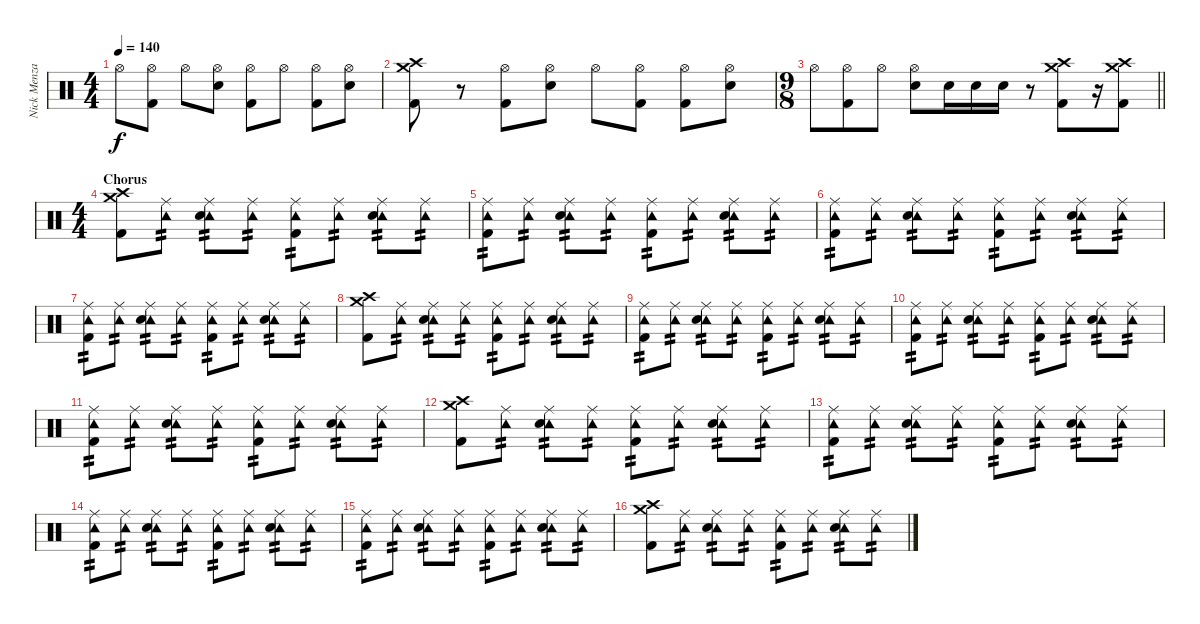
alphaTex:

\track ("Nick Menza" "Nick Menza") {instrument percussion}
\staff {score}
\articulation defaults
\ts (4 4)
\tempo 140
\clef neutral
\ks c "Hi-Hat (open)".8{dy f}
("Hi-Hat (open)" "Kick (hit) 2").8 "Hi-Hat (open)".8 ("Hi-Hat (open)" "Snare (hit) 2").8 ("Hi-Hat (open)" "Kick (hit) 2").8 "Hi-Hat (open)".8 ("Hi-Hat (open)" "Kick (hit) 2").8 ("Hi-Hat (open)" "Snare (hit) 2").8 |
("Crash high (hit)" "Crash medium (hit)" "Kick (hit) 2").8 r.8 ("Hi-Hat (open)" "Kick (hit) 2").8 ("Hi-Hat (open)" "Snare (hit) 2").8 "Hi-Hat (open)".8 ("Hi-Hat (open)" "Kick (hit) 2").8 ("Hi-Hat (open)" "Kick (hit) 2").8 ("Hi-Hat (open)" "Snare (hit) 2").8 |
\ts (9 8)
\barLineRight lightlight "Hi-Hat (open)".8
("Hi-Hat (open)" "Kick (hit) 2").8 "Hi-Hat (open)".8 ("Hi-Hat (open)" "Snare (hit) 2").8 "Snare (hit) 2".16 "Snare (hit) 2".16 "Snare (hit) 2".16 r.8 ("Crash high (hit)" "Crash medium (hit)" "Kick (hit) 2").8 r.16 ("Crash high (hit)" "Crash medium (hit)" "Kick (hit) 2").8 |
\ts (4 4)
\section ("" "Chorus")
("Crash high (hit)" "Crash medium (hit)" "Kick (hit) 2").8 ("Tambourine (hit)" "Ride (middle)").8{tp 2} ("Tambourine (hit)" "Ride (middle)" "Snare (hit) 2").8{tp 2} ("Tambourine (hit)" "Ride (middle)").8{tp 2} ("Tambourine (hit)" "Ride (middle)" "Kick (hit) 2").8{tp 2} ("Tambourine (hit)" "Ride (middle)").8{tp 2} ("Tambourine (hit)" "Ride (middle)" "Snare (hit) 2").8{tp 2} ("Tambourine (hit)" "Ride (middle)").8{tp 2} |
("Tambourine (hit)" "Ride (middle)" "Kick (hit) 2").8{tp 2} ("Tambourine (hit)" "Ride (middle)").8{tp 2} ("Tambourine (hit)" "Ride (middle)" "Snare (hit) 2").8{tp 2} ("Tambourine (hit)" "Ride (middle)").8{tp 2} ("Tambourine (hit)" "Ride (middle)" "Kick (hit) 2").8{tp 2} ("Tambourine (hit)" "Ride (middle)").8{tp 2} ("Tambourine (hit)" "Ride (middle)" "Snare (hit) 2").8{tp 2} ("Tambourine (hit)" "Ride (middle)").8{tp 2} |
("Tambourine (hit)" "Ride (middle)" "Kick (hit) 2").8{tp 2} ("Tambourine (hit)" "Ride (middle)").8{tp 2} ("Tambourine (hit)" "Ride (middle)" "Snare (hit) 2").8{tp 2} ("Tambourine (hit)" "Ride (middle)").8{tp 2} ("Tambourine (hit)" "Ride (middle)" "Kick (hit) 2").8{tp 2} ("Tambourine (hit)" "Ride (middle)").8{tp 2} ("Tambourine (hit)" "Ride (middle)" "Snare (hit) 2").8{tp 2} ("Tambourine (hit)" "Ride (middle)").8{tp 2} |
("Tambourine (hit)" "Ride (middle)" "Kick (hit) 2").8{tp 2} ("Tambourine (hit)" "Ride (middle)").8{tp 2} ("Tambourine (hit)" "Ride (middle)" "Snare (hit) 2").8{tp 2} ("Tambourine (hit)" "Ride (middle)").8{tp 2} ("Tambourine (hit)" "Ride (middle)" "Kick (hit) 2").8{tp 2} ("Tambourine (hit)" "Ride (middle)").8{tp 2} ("Tambourine (hit)" "Ride (middle)" "Snare (hit) 2").8{tp 2} ("Tambourine (hit)" "Ride (middle)").8{tp 2} |
("Crash high (hit)" "Crash medium (hit)" "Kick (hit) 2").8 ("Tambourine (hit)" "Ride (middle)").8{tp 2} ("Tambourine (hit)" "Ride (middle)" "Snare (hit) 2").8{tp 2} ("Tambourine (hit)" "Ride (middle)").8{tp 2} ("Tambourine (hit)" "Ride (middle)" "Kick (hit) 2").8{tp 2} ("Tambourine (hit)" "Ride (middle)").8{tp 2} ("Tambourine (hit)" "Ride (middle)" "Snare (hit) 2").8{tp 2} ("Tambourine (hit)" "Ride (middle)").8{tp 2} |
("Tambourine (hit)" "Ride (middle)" "Kick (hit) 2").8{tp 2} ("Tambourine (hit)" "Ride (middle)").8{tp 2} ("Tambourine (hit)" "Ride (middle)" "Snare (hit) 2").8{tp 2} ("Tambourine (hit)" "Ride (middle)").8{tp 2} ("Tambourine (hit)" "Ride (middle)" "Kick (hit) 2").8{tp 2} ("Tambourine (hit)" "Ride (middle)").8{tp 2} ("Tambourine (hit)" "Ride (middle)" "Snare (hit) 2").8{tp 2} ("Tambourine (hit)" "Ride (middle)").8{tp 2} |
("Tambourine (hit)" "Ride (middle)" "Kick (hit) 2").8{tp 2} ("Tambourine (hit)" "Ride (middle)").8{tp 2} ("Tambourine (hit)" "Ride (middle)" "Snare (hit) 2").8{tp 2} ("Tambourine (hit)" "Ride (middle)").8{tp 2} ("Tambourine (hit)" "Ride (middle)" "Kick (hit) 2").8{tp 2} ("Tambourine (hit)" "Ride (middle)").8{tp 2} ("Tambourine (hit)" "Ride (middle)" "Snare (hit) 2").8{tp 2} ("Tambourine (hit)" "Ride (middle)").8{tp 2} |
("Tambourine (hit)" "Ride (middle)" "Kick (hit) 2").8{tp 2} ("Tambourine (hit)" "Ride (middle)").8{tp 2} ("Tambourine (hit)" "Ride (middle)" "Snare (hit) 2").8{tp 2} ("Tambourine (hit)" "Ride (middle)").8{tp 2} ("Tambourine (hit)" "Ride (middle)" "Kick (hit) 2").8{tp 2} ("Tambourine (hit)" "Ride (middle)").8{tp 2} ("Tambourine (hit)" "Ride (middle)" "Snare (hit) 2").8{tp 2} ("Tambourine (hit)" "Ride (middle)").8{tp 2} |
("Crash high (hit)" "Crash medium (hit)" "Kick (hit) 2").8 ("Tambourine (hit)" "Ride (middle)").8{tp 2} ("Tambourine (hit)" "Ride (middle)" "Snare (hit) 2").8{tp 2} ("Tambourine (hit)" "Ride (middle)").8{tp 2} ("Tambourine (hit)" "Ride (middle)" "Kick (hit) 2").8{tp 2} ("Tambourine (hit)" "Ride (middle)").8{tp 2} ("Tambourine (hit)" "Ride (middle)" "Snare (hit) 2").8{tp 2} ("Tambourine (hit)" "Ride (middle)").8{tp 2} |
("Tambourine (hit)" "Ride (middle)" "Kick (hit) 2").8{tp 2} ("Tambourine (hit)" "Ride (middle)").8{tp 2} ("Tambourine (hit)" "Ride (middle)" "Snare (hit) 2").8{tp 2} ("Tambourine (hit)" "Ride (middle)").8{tp 2} ("Tambourine (hit)" "Ride (middle)" "Kick (hit) 2").8{tp 2} ("Tambourine (hit)" "Ride (middle)").8{tp 2} ("Tambourine (hit)" "Ride (middle)" "Snare (hit) 2").8{tp 2} ("Tambourine (hit)" "Ride (middle)").8{tp 2} |
("Tambourine (hit)" "Ride (middle)" "Kick (hit) 2").8{tp 2} ("Tambourine (hit)" "Ride (middle)").8{tp 2} ("Tambourine (hit)" "Ride (middle)" "Snare (hit) 2").8{tp 2} ("Tambourine (hit)" "Ride (middle)").8{tp 2} ("Tambourine (hit)" "Ride (middle)" "Kick (hit) 2").8{tp 2} ("Tambourine (hit)" "Ride (middle)").8{tp 2} ("Tambourine (hit)" "Ride (middle)" "Snare (hit) 2").8{tp 2} ("Tambourine (hit)" "Ride (middle)").8{tp 2} |
("Tambourine (hit)" "Ride (middle)" "Kick (hit) 2").8{tp 2} ("Tambourine (hit)" "Ride (middle)").8{tp 2} ("Tambourine (hit)" "Ride (middle)" "Snare (hit) 2").8{tp 2} ("Tambourine (hit)" "Ride (middle)").8{tp 2} ("Tambourine (hit)" "Ride (middle)" "Kick (hit) 2").8{tp 2} ("Tambourine (hit)" "Ride (middle)").8{tp 2} ("Tambourine (hit)" "Ride (middle)" "Snare (hit) 2").8{tp 2} ("Tambourine (hit)" "Ride (middle)").8{tp 2} |
("Crash high (hit)" "Crash medium (hit)" "Kick (hit) 2").8 ("Tambourine (hit)" "Ride (middle)").8{tp 2} ("Tambourine (hit)" "Ride (middle)" "Snare (hit) 2").8{tp 2} ("Tambourine (hit)" "Ride (middle)").8{tp 2} ("Tambourine (hit)" "Ride (middle)" "Kick (hit) 2").8{tp 2} ("Tambourine (hit)" "Ride (middle)").8{tp 2} ("Tambourine (hit)" "Ride (middle)" "Snare (hit) 2").8{tp 2} ("Tambourine (hit)" "Ride (middle)").8{tp 2}
